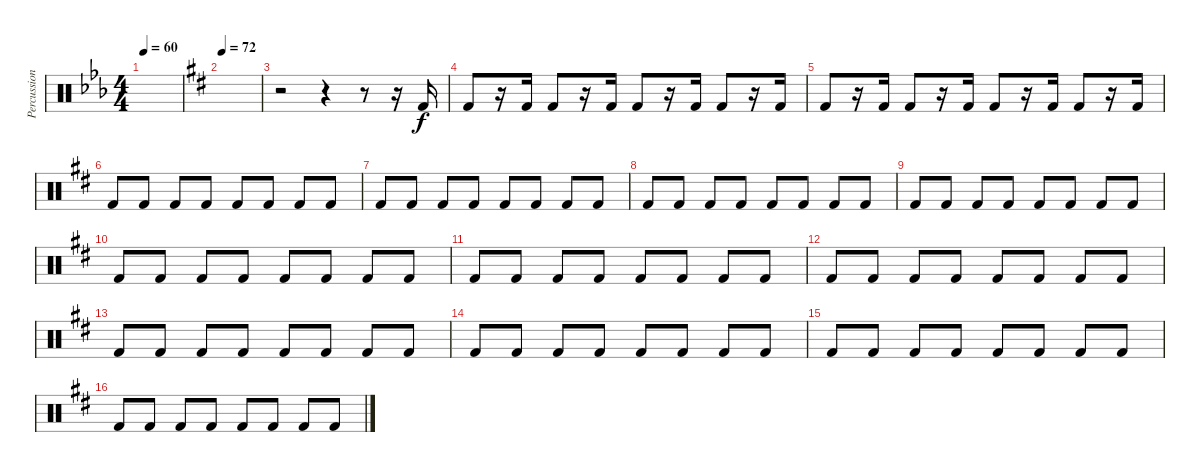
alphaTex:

\track ("Percussion" "Percussion") {instrument percussion}
\staff {score}
\articulation defaults
\ts (4 4)
\tempo 60
\clef neutral
\ks eb
|
\tempo 72
\ks d
|
r.2 r.4 r.8 r.16 "Kick (hit) 2".16 |
"Kick (hit) 2".8 r.16 "Kick (hit) 2".16 "Kick (hit) 2".8 r.16 "Kick (hit) 2".16 "Kick (hit) 2".8 r.16 "Kick (hit) 2".16 "Kick (hit) 2".8 r.16 "Kick (hit) 2".16 |
"Kick (hit) 2".8 r.16 "Kick (hit) 2".16 "Kick (hit) 2".8 r.16 "Kick (hit) 2".16 "Kick (hit) 2".8 r.16 "Kick (hit) 2".16 "Kick (hit) 2".8 r.16 "Kick (hit) 2".16 |
"Kick (hit) 2".8 "Kick (hit) 2".8 "Kick (hit) 2".8 "Kick (hit) 2".8 "Kick (hit) 2".8 "Kick (hit) 2".8 "Kick (hit) 2".8 "Kick (hit) 2".8 |
"Kick (hit) 2".8 "Kick (hit) 2".8 "Kick (hit) 2".8 "Kick (hit) 2".8 "Kick (hit) 2".8 "Kick (hit) 2".8 "Kick (hit) 2".8 "Kick (hit) 2".8 |
"Kick (hit) 2".8 "Kick (hit) 2".8 "Kick (hit) 2".8 "Kick (hit) 2".8 "Kick (hit) 2".8 "Kick (hit) 2".8 "Kick (hit) 2".8 "Kick (hit) 2".8 |
"Kick (hit) 2".8 "Kick (hit) 2".8 "Kick (hit) 2".8 "Kick (hit) 2".8 "Kick (hit) 2".8 "Kick (hit) 2".8 "Kick (hit) 2".8 "Kick (hit) 2".8 |
"Kick (hit) 2".8 "Kick (hit) 2".8 "Kick (hit) 2".8 "Kick (hit) 2".8 "Kick (hit) 2".8 "Kick (hit) 2".8 "Kick (hit) 2".8 "Kick (hit) 2".8 |
"Kick (hit) 2".8 "Kick (hit) 2".8 "Kick (hit) 2".8 "Kick (hit) 2".8 "Kick (hit) 2".8 "Kick (hit) 2".8 "Kick (hit) 2".8 "Kick (hit) 2".8 |
"Kick (hit) 2".8 "Kick (hit) 2".8 "Kick (hit) 2".8 "Kick (hit) 2".8 "Kick (hit) 2".8 "Kick (hit) 2".8 "Kick (hit) 2".8 "Kick (hit) 2".8 |
"Kick (hit) 2".8 "Kick (hit) 2".8 "Kick (hit) 2".8 "Kick (hit) 2".8 "Kick (hit) 2".8 "Kick (hit) 2".8 "Kick (hit) 2".8 "Kick (hit) 2".8 |
"Kick (hit) 2".8 "Kick (hit) 2".8 "Kick (hit) 2".8 "Kick (hit) 2".8 "Kick (hit) 2".8 "Kick (hit) 2".8 "Kick (hit) 2".8 "Kick (hit) 2".8 |
"Kick (hit) 2".8 "Kick (hit) 2".8 "Kick (hit) 2".8 "Kick (hit) 2".8 "Kick (hit) 2".8 "Kick (hit) 2".8 "Kick (hit) 2".8 "Kick (hit) 2".8 |
"Kick (hit) 2".8 "Kick (hit) 2".8 "Kick (hit) 2".8 "Kick (hit) 2".8 "Kick (hit) 2".8 "Kick (hit) 2".8 "Kick (hit) 2".8 "Kick (hit) 2".8
